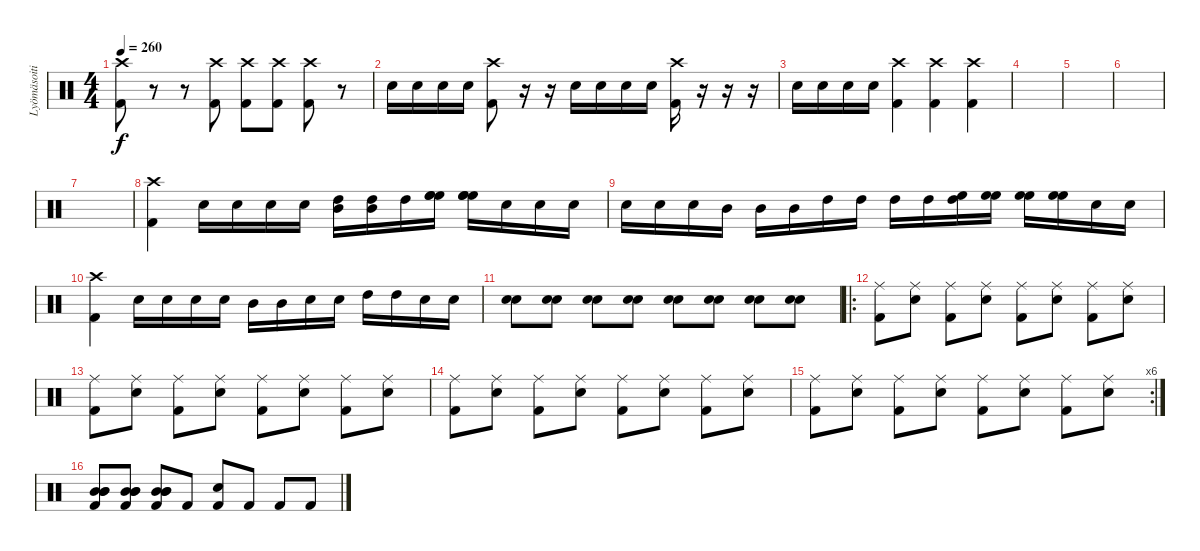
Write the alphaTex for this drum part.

\track ("Lyömäsoitin" "Lyömäsoiti") {instrument percussion}
\staff {score}
\articulation defaults
\ts (4 4)
\tempo 260
\clef neutral
\ks c
("Kick (hit) 2" "Crash high (hit)").8{dy f} r.8 r.8 ("Kick (hit) 2" "Crash high (hit)").8 ("Kick (hit) 2" "Crash high (hit)").8 ("Kick (hit) 2" "Crash high (hit)").8 ("Kick (hit) 2" "Crash high (hit)").8 r.8 |
"Electric Snare (hit)".16 "Electric Snare (hit)".16 "Electric Snare (hit)".16 "Electric Snare (hit)".16 ("Crash high (hit)" "Kick (hit) 2").8 r.16 r.16 "Electric Snare (hit)".16 "Electric Snare (hit)".16 "Electric Snare (hit)".16 "Electric Snare (hit)".16 ("Crash high (hit)" "Kick (hit) 2").16 r.16 r.16 r.16 |
"Electric Snare (hit)".16 "Electric Snare (hit)".16 "Electric Snare (hit)".16 "Electric Snare (hit)".16 ("Crash high (hit)" "Kick (hit) 2").4 ("Crash high (hit)" "Kick (hit) 2").4 ("Crash high (hit)" "Kick (hit) 2").4 |
|
|
|
|
("Crash high (hit)" "Kick (hit) 2").4 "Electric Snare (hit)".16 "Electric Snare (hit)".16 "Electric Snare (hit)".16 "Electric Snare (hit)".16 ("High Tom (hit)" "Mid Tom (hit)").16 ("High Tom (hit)" "Mid Tom (hit)").16 "High Tom (hit)".16 ("High Floor Tom (hit)" "High Floor Tom (hit)" "High Floor Tom (hit)").16 ("High Floor Tom (hit)" "High Floor Tom (hit)" "High Floor Tom (hit)").16 "Electric Snare (hit)".16 "Electric Snare (hit)".16 "Electric Snare (hit)".16 |
"Electric Snare (hit)".16 "Electric Snare (hit)".16 "Electric Snare (hit)".16 "Mid Tom (hit)".16 "Mid Tom (hit)".16 "Mid Tom (hit)".16 "High Tom (hit)".16 "High Tom (hit)".16 "High Tom (hit)".16 "High Tom (hit)".16 ("High Floor Tom (hit)" "High Tom (hit)").16 ("High Floor Tom (hit)" "High Floor Tom (hit)").16 ("High Floor Tom (hit)" "High Floor Tom (hit)").16 ("High Floor Tom (hit)" "High Floor Tom (hit)").16 "Electric Snare (hit)".16 "Electric Snare (hit)".16 |
("Kick (hit) 2" "Crash high (hit)").4 "Electric Snare (hit)".16 "Electric Snare (hit)".16 "Electric Snare (hit)".16 "Electric Snare (hit)".16 "Mid Tom (hit)".16 "Mid Tom (hit)".16 "Electric Snare (hit)".16 "Electric Snare (hit)".16 "High Tom (hit)".16 "High Tom (hit)".16 "Electric Snare (hit)".16 "Electric Snare (hit)".16 |
("Electric Snare (hit)" "Electric Snare (hit)").8 ("Electric Snare (hit)" "Electric Snare (hit)").8 ("Electric Snare (hit)" "Electric Snare (hit)").8 ("Electric Snare (hit)" "Electric Snare (hit)").8 ("Electric Snare (hit)" "Electric Snare (hit)").8 ("Electric Snare (hit)" "Electric Snare (hit)").8 ("Electric Snare (hit)" "Electric Snare (hit)").8 ("Electric Snare (hit)" "Electric Snare (hit)").8 |
\ro
("Ride (middle)" "Kick (hit) 2").8 ("Ride (middle)" "Electric Snare (hit)").8 ("Ride (middle)" "Kick (hit) 2").8 ("Ride (middle)" "Electric Snare (hit)").8 ("Ride (middle)" "Kick (hit) 2").8 ("Ride (middle)" "Electric Snare (hit)").8 ("Ride (middle)" "Kick (hit) 2").8 ("Ride (middle)" "Electric Snare (hit)").8 |
("Ride (middle)" "Kick (hit) 2").8 ("Ride (middle)" "Electric Snare (hit)").8 ("Ride (middle)" "Kick (hit) 2").8 ("Ride (middle)" "Electric Snare (hit)").8 ("Ride (middle)" "Kick (hit) 2").8 ("Ride (middle)" "Electric Snare (hit)").8 ("Ride (middle)" "Kick (hit) 2").8 ("Ride (middle)" "Electric Snare (hit)").8 |
("Ride (middle)" "Kick (hit) 2").8 ("Ride (middle)" "Electric Snare (hit)").8 ("Ride (middle)" "Kick (hit) 2").8 ("Ride (middle)" "Electric Snare (hit)").8 ("Ride (middle)" "Kick (hit) 2").8 ("Ride (middle)" "Electric Snare (hit)").8 ("Ride (middle)" "Kick (hit) 2").8 ("Ride (middle)" "Electric Snare (hit)").8 |
\rc 6
("Ride (middle)" "Kick (hit) 2").8 ("Ride (middle)" "Electric Snare (hit)").8 ("Ride (middle)" "Kick (hit) 2").8 ("Ride (middle)" "Electric Snare (hit)").8 ("Ride (middle)" "Kick (hit) 2").8 ("Ride (middle)" "Electric Snare (hit)").8 ("Ride (middle)" "Kick (hit) 2").8 ("Ride (middle)" "Electric Snare (hit)").8 |
("Mid Tom (hit)" "Mid Tom (hit)" "Mid Tom (hit)" "Kick (hit) 2").8 ("Mid Tom (hit)" "Mid Tom (hit)" "Mid Tom (hit)" "Kick (hit) 2").8 ("Mid Tom (hit)" "Mid Tom (hit)" "Mid Tom (hit)" "Kick (hit) 2").8 "Kick (hit) 2".8 ("Electric Snare (hit)" "Kick (hit) 2").8 "Kick (hit) 2".8 "Kick (hit) 2".8 "Kick (hit) 2".8
